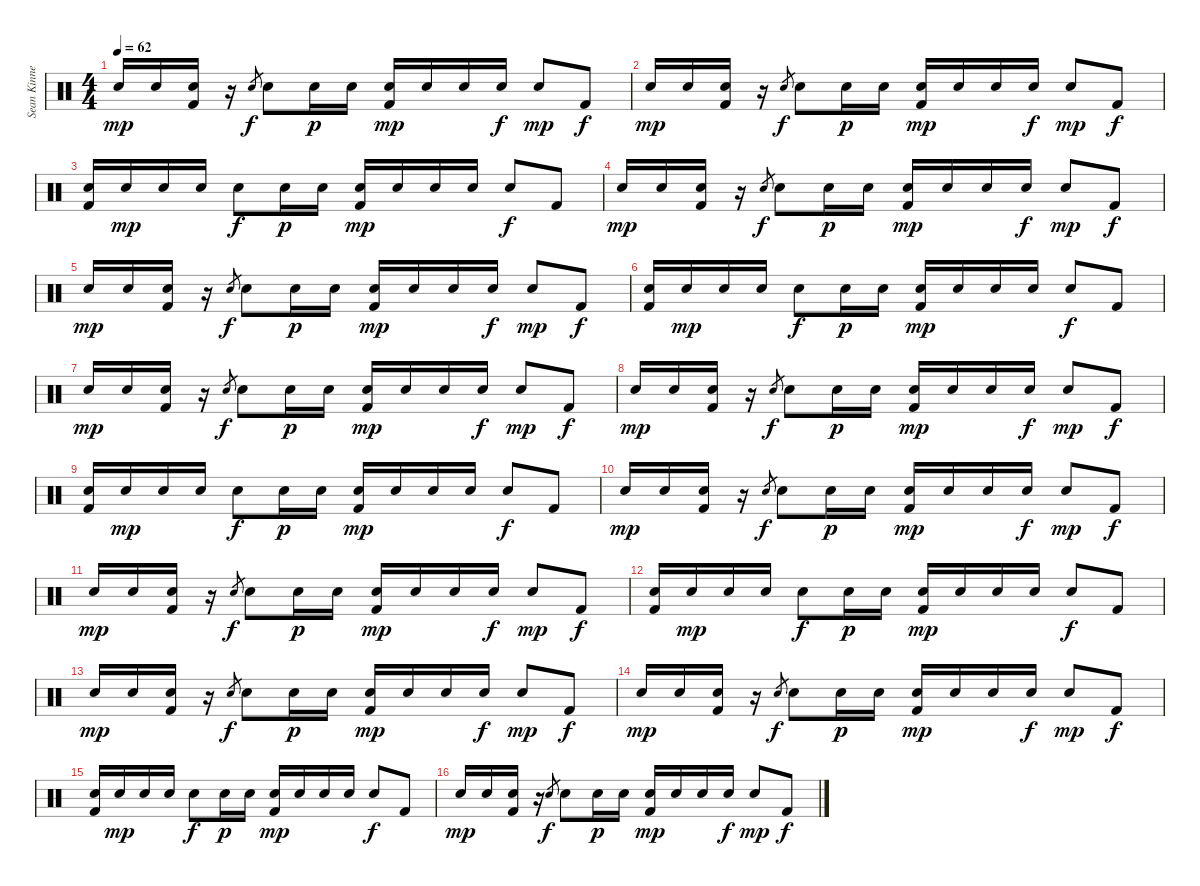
\track ("Sean Kinney - Drums" "Sean Kinne") {instrument percussion}
\staff {score}
\articulation defaults
\ts (4 4)
\tempo 62
\clef neutral
\ks c "Electric Snare (hit)".16{dy mp} "Electric Snare (hit)".16
("Electric Snare (hit)" "Kick (hit) 2").16 r.16 "Electric Snare (hit)".8{gr dy f} "Electric Snare (hit)".8 "Electric Snare (hit)".16{dy p} "Electric Snare (hit)".16 ("Electric Snare (hit)" "Kick (hit) 2").16{dy mp} "Electric Snare (hit)".16 "Electric Snare (hit)".16 "Electric Snare (hit)".16{dy f} "Electric Snare (hit)".8{dy mp} "Kick (hit) 2".8{dy f} |
"Electric Snare (hit)".16{dy mp} "Electric Snare (hit)".16 ("Electric Snare (hit)" "Kick (hit) 2").16 r.16 "Electric Snare (hit)".8{gr dy f} "Electric Snare (hit)".8 "Electric Snare (hit)".16{dy p} "Electric Snare (hit)".16 ("Electric Snare (hit)" "Kick (hit) 2").16{dy mp} "Electric Snare (hit)".16 "Electric Snare (hit)".16 "Electric Snare (hit)".16{dy f} "Electric Snare (hit)".8{dy mp} "Kick (hit) 2".8{dy f} |
("Electric Snare (hit)" "Kick (hit) 2").16 "Electric Snare (hit)".16{dy mp} "Electric Snare (hit)".16 "Electric Snare (hit)".16 "Electric Snare (hit)".8{dy f} "Electric Snare (hit)".16{dy p} "Electric Snare (hit)".16 ("Electric Snare (hit)" "Kick (hit) 2").16{dy mp} "Electric Snare (hit)".16 "Electric Snare (hit)".16 "Electric Snare (hit)".16 "Electric Snare (hit)".8{dy f} "Kick (hit) 2".8 |
"Electric Snare (hit)".16{dy mp} "Electric Snare (hit)".16 ("Electric Snare (hit)" "Kick (hit) 2").16 r.16 "Electric Snare (hit)".8{gr dy f} "Electric Snare (hit)".8 "Electric Snare (hit)".16{dy p} "Electric Snare (hit)".16 ("Electric Snare (hit)" "Kick (hit) 2").16{dy mp} "Electric Snare (hit)".16 "Electric Snare (hit)".16 "Electric Snare (hit)".16{dy f} "Electric Snare (hit)".8{dy mp} "Kick (hit) 2".8{dy f} |
"Electric Snare (hit)".16{dy mp} "Electric Snare (hit)".16 ("Electric Snare (hit)" "Kick (hit) 2").16 r.16 "Electric Snare (hit)".8{gr dy f} "Electric Snare (hit)".8 "Electric Snare (hit)".16{dy p} "Electric Snare (hit)".16 ("Electric Snare (hit)" "Kick (hit) 2").16{dy mp} "Electric Snare (hit)".16 "Electric Snare (hit)".16 "Electric Snare (hit)".16{dy f} "Electric Snare (hit)".8{dy mp} "Kick (hit) 2".8{dy f} |
("Electric Snare (hit)" "Kick (hit) 2").16 "Electric Snare (hit)".16{dy mp} "Electric Snare (hit)".16 "Electric Snare (hit)".16 "Electric Snare (hit)".8{dy f} "Electric Snare (hit)".16{dy p} "Electric Snare (hit)".16 ("Electric Snare (hit)" "Kick (hit) 2").16{dy mp} "Electric Snare (hit)".16 "Electric Snare (hit)".16 "Electric Snare (hit)".16 "Electric Snare (hit)".8{dy f} "Kick (hit) 2".8 |
"Electric Snare (hit)".16{dy mp} "Electric Snare (hit)".16 ("Electric Snare (hit)" "Kick (hit) 2").16 r.16 "Electric Snare (hit)".8{gr dy f} "Electric Snare (hit)".8 "Electric Snare (hit)".16{dy p} "Electric Snare (hit)".16 ("Electric Snare (hit)" "Kick (hit) 2").16{dy mp} "Electric Snare (hit)".16 "Electric Snare (hit)".16 "Electric Snare (hit)".16{dy f} "Electric Snare (hit)".8{dy mp} "Kick (hit) 2".8{dy f} |
"Electric Snare (hit)".16{dy mp} "Electric Snare (hit)".16 ("Electric Snare (hit)" "Kick (hit) 2").16 r.16 "Electric Snare (hit)".8{gr dy f} "Electric Snare (hit)".8 "Electric Snare (hit)".16{dy p} "Electric Snare (hit)".16 ("Electric Snare (hit)" "Kick (hit) 2").16{dy mp} "Electric Snare (hit)".16 "Electric Snare (hit)".16 "Electric Snare (hit)".16{dy f} "Electric Snare (hit)".8{dy mp} "Kick (hit) 2".8{dy f} |
("Electric Snare (hit)" "Kick (hit) 2").16 "Electric Snare (hit)".16{dy mp} "Electric Snare (hit)".16 "Electric Snare (hit)".16 "Electric Snare (hit)".8{dy f} "Electric Snare (hit)".16{dy p} "Electric Snare (hit)".16 ("Electric Snare (hit)" "Kick (hit) 2").16{dy mp} "Electric Snare (hit)".16 "Electric Snare (hit)".16 "Electric Snare (hit)".16 "Electric Snare (hit)".8{dy f} "Kick (hit) 2".8 |
"Electric Snare (hit)".16{dy mp} "Electric Snare (hit)".16 ("Electric Snare (hit)" "Kick (hit) 2").16 r.16 "Electric Snare (hit)".8{gr dy f} "Electric Snare (hit)".8 "Electric Snare (hit)".16{dy p} "Electric Snare (hit)".16 ("Electric Snare (hit)" "Kick (hit) 2").16{dy mp} "Electric Snare (hit)".16 "Electric Snare (hit)".16 "Electric Snare (hit)".16{dy f} "Electric Snare (hit)".8{dy mp} "Kick (hit) 2".8{dy f} |
"Electric Snare (hit)".16{dy mp} "Electric Snare (hit)".16 ("Electric Snare (hit)" "Kick (hit) 2").16 r.16 "Electric Snare (hit)".8{gr dy f} "Electric Snare (hit)".8 "Electric Snare (hit)".16{dy p} "Electric Snare (hit)".16 ("Electric Snare (hit)" "Kick (hit) 2").16{dy mp} "Electric Snare (hit)".16 "Electric Snare (hit)".16 "Electric Snare (hit)".16{dy f} "Electric Snare (hit)".8{dy mp} "Kick (hit) 2".8{dy f} |
("Electric Snare (hit)" "Kick (hit) 2").16 "Electric Snare (hit)".16{dy mp} "Electric Snare (hit)".16 "Electric Snare (hit)".16 "Electric Snare (hit)".8{dy f} "Electric Snare (hit)".16{dy p} "Electric Snare (hit)".16 ("Electric Snare (hit)" "Kick (hit) 2").16{dy mp} "Electric Snare (hit)".16 "Electric Snare (hit)".16 "Electric Snare (hit)".16 "Electric Snare (hit)".8{dy f} "Kick (hit) 2".8 |
"Electric Snare (hit)".16{dy mp} "Electric Snare (hit)".16 ("Electric Snare (hit)" "Kick (hit) 2").16 r.16 "Electric Snare (hit)".8{gr dy f} "Electric Snare (hit)".8 "Electric Snare (hit)".16{dy p} "Electric Snare (hit)".16 ("Electric Snare (hit)" "Kick (hit) 2").16{dy mp} "Electric Snare (hit)".16 "Electric Snare (hit)".16 "Electric Snare (hit)".16{dy f} "Electric Snare (hit)".8{dy mp} "Kick (hit) 2".8{dy f} |
"Electric Snare (hit)".16{dy mp} "Electric Snare (hit)".16 ("Electric Snare (hit)" "Kick (hit) 2").16 r.16 "Electric Snare (hit)".8{gr dy f} "Electric Snare (hit)".8 "Electric Snare (hit)".16{dy p} "Electric Snare (hit)".16 ("Electric Snare (hit)" "Kick (hit) 2").16{dy mp} "Electric Snare (hit)".16 "Electric Snare (hit)".16 "Electric Snare (hit)".16{dy f} "Electric Snare (hit)".8{dy mp} "Kick (hit) 2".8{dy f} |
("Electric Snare (hit)" "Kick (hit) 2").16 "Electric Snare (hit)".16{dy mp} "Electric Snare (hit)".16 "Electric Snare (hit)".16 "Electric Snare (hit)".8{dy f} "Electric Snare (hit)".16{dy p} "Electric Snare (hit)".16 ("Electric Snare (hit)" "Kick (hit) 2").16{dy mp} "Electric Snare (hit)".16 "Electric Snare (hit)".16 "Electric Snare (hit)".16 "Electric Snare (hit)".8{dy f} "Kick (hit) 2".8 |
"Electric Snare (hit)".16{dy mp} "Electric Snare (hit)".16 ("Electric Snare (hit)" "Kick (hit) 2").16 r.16 "Electric Snare (hit)".8{gr dy f} "Electric Snare (hit)".8 "Electric Snare (hit)".16{dy p} "Electric Snare (hit)".16 ("Electric Snare (hit)" "Kick (hit) 2").16{dy mp} "Electric Snare (hit)".16 "Electric Snare (hit)".16 "Electric Snare (hit)".16{dy f} "Electric Snare (hit)".8{dy mp} "Kick (hit) 2".8{dy f}
